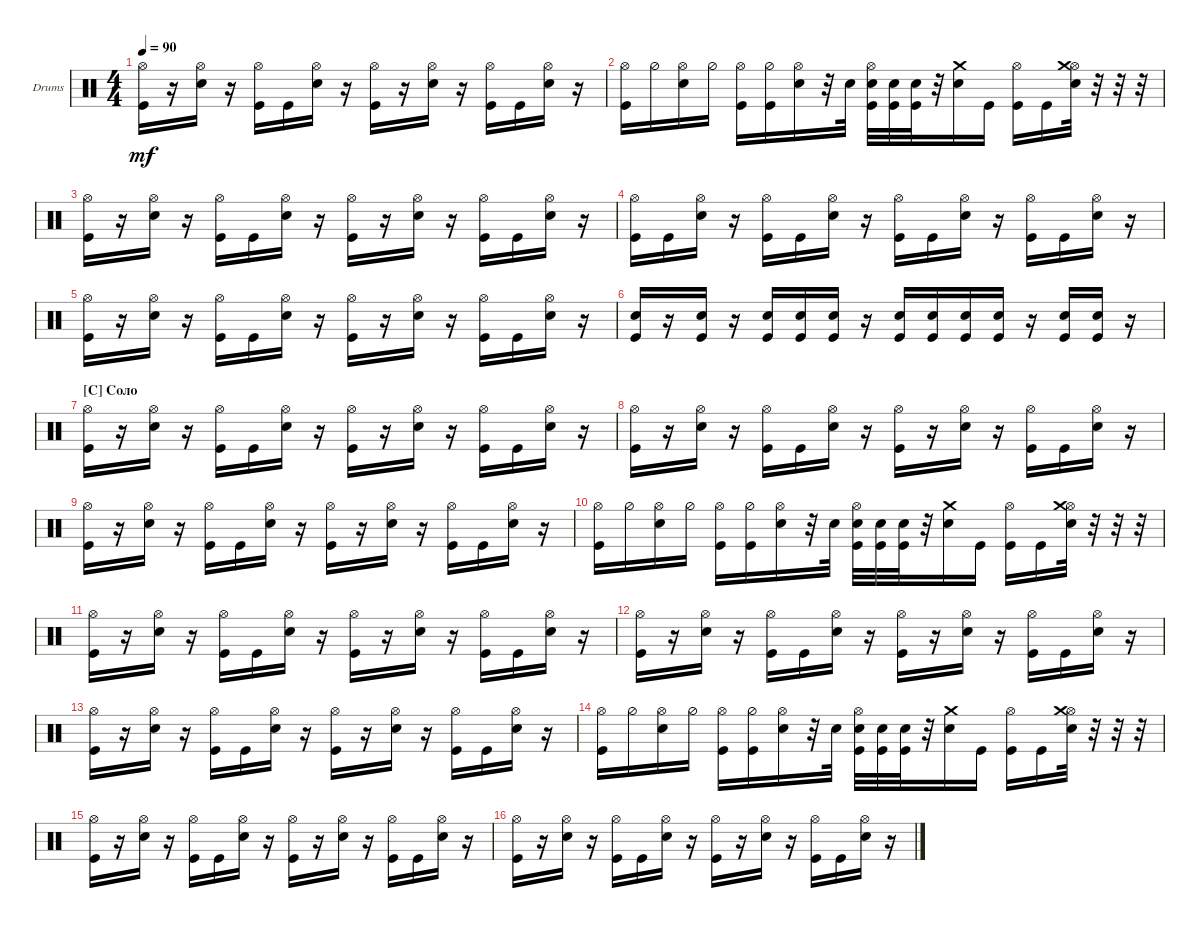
\bracketExtendMode groupsimilarinstruments
\firstSystemTrackNameOrientation horizontal
\otherSystemsTrackNameOrientation horizontal
\track ("Drumkit" "Drums") {instrument percussion}
\staff {score}
\articulation defaults
\ts (4 4)
\tempo 90
\clef neutral
\ks c
("Hi-Hat (open)" "Kick (hit)").16{dy mf} r.16 ("Hi-Hat (open)" "Snare (hit) 2").16 r.16 ("Hi-Hat (open)" "Kick (hit)").16 "Kick (hit)".16 ("Hi-Hat (open)" "Snare (hit) 2").16 r.16 ("Hi-Hat (open)" "Kick (hit)").16 r.16 ("Hi-Hat (open)" "Snare (hit) 2").16 r.16 ("Hi-Hat (open)" "Kick (hit)").16 "Kick (hit)".16 ("Hi-Hat (open)" "Snare (hit) 2").16 r.16 |
("Hi-Hat (open)" "Kick (hit)").16 "Hi-Hat (half)".16 ("Hi-Hat (open)" "Snare (hit) 2").16 "Hi-Hat (half)".16 ("Hi-Hat (open)" "Kick (hit)").16 ("Kick (hit)" "Hi-Hat (half)").16 ("Hi-Hat (open)" "Snare (hit) 2").16 r.32 "Snare (hit) 2".32 ("Hi-Hat (open)" "Snare (hit) 2" "Kick (hit)").32 ("Kick (hit)" "Snare (hit) 2").32 ("Kick (hit)" "Snare (hit) 2").32 r.32 ("Crash medium (hit)" "Snare (hit) 2").16 "Kick (hit)".16 ("Hi-Hat (open)" "Kick (hit)").16 "Kick (hit)".16 ("Hi-Hat (open)" "Crash medium (hit)" "Snare (hit) 2").32 r.32 r.32 r.32 |
("Hi-Hat (open)" "Kick (hit)").16 r.16 ("Hi-Hat (open)" "Snare (hit) 2").16 r.16 ("Hi-Hat (open)" "Kick (hit)").16 "Kick (hit)".16 ("Hi-Hat (open)" "Snare (hit) 2").16 r.16 ("Hi-Hat (open)" "Kick (hit)").16 r.16 ("Hi-Hat (open)" "Snare (hit) 2").16 r.16 ("Hi-Hat (open)" "Kick (hit)").16 "Kick (hit)".16 ("Hi-Hat (open)" "Snare (hit) 2").16 r.16 |
("Hi-Hat (open)" "Kick (hit)").16 "Kick (hit)".16 ("Hi-Hat (open)" "Snare (hit) 2").16 r.16 ("Hi-Hat (open)" "Kick (hit)").16 "Kick (hit)".16 ("Hi-Hat (open)" "Snare (hit) 2").16 r.16 ("Hi-Hat (open)" "Kick (hit)").16 "Kick (hit)".16 ("Hi-Hat (open)" "Snare (hit) 2").16 r.16 ("Hi-Hat (open)" "Kick (hit)").16 "Kick (hit)".16 ("Hi-Hat (open)" "Snare (hit) 2").16 r.16 |
("Hi-Hat (open)" "Kick (hit)").16 r.16 ("Hi-Hat (open)" "Snare (hit) 2").16 r.16 ("Hi-Hat (open)" "Kick (hit)").16 "Kick (hit)".16 ("Hi-Hat (open)" "Snare (hit) 2").16 r.16 ("Hi-Hat (open)" "Kick (hit)").16 r.16 ("Hi-Hat (open)" "Snare (hit) 2").16 r.16 ("Hi-Hat (open)" "Kick (hit)").16 "Kick (hit)".16 ("Hi-Hat (open)" "Snare (hit) 2").16 r.16 |
("Kick (hit)" "Snare (hit) 2").16 r.16 ("Kick (hit)" "Snare (hit) 2").16 r.16 ("Kick (hit)" "Snare (hit) 2").16 ("Kick (hit)" "Snare (hit) 2").16 ("Kick (hit)" "Snare (hit) 2").16 r.16 ("Kick (hit)" "Snare (hit) 2").16 ("Kick (hit)" "Snare (hit) 2").16 ("Kick (hit)" "Snare (hit) 2").16 ("Kick (hit)" "Snare (hit) 2").16 r.16 ("Kick (hit)" "Snare (hit) 2").16 ("Kick (hit)" "Snare (hit) 2").16 r.16 |
\section ("C" "Соло")
("Hi-Hat (open)" "Kick (hit)").16 r.16 ("Hi-Hat (open)" "Snare (hit) 2").16 r.16 ("Hi-Hat (open)" "Kick (hit)").16 "Kick (hit)".16 ("Hi-Hat (open)" "Snare (hit) 2").16 r.16 ("Hi-Hat (open)" "Kick (hit)").16 r.16 ("Hi-Hat (open)" "Snare (hit) 2").16 r.16 ("Hi-Hat (open)" "Kick (hit)").16 "Kick (hit)".16 ("Hi-Hat (open)" "Snare (hit) 2").16 r.16 |
("Hi-Hat (open)" "Kick (hit)").16 r.16 ("Hi-Hat (open)" "Snare (hit) 2").16 r.16 ("Hi-Hat (open)" "Kick (hit)").16 "Kick (hit)".16 ("Hi-Hat (open)" "Snare (hit) 2").16 r.16 ("Hi-Hat (open)" "Kick (hit)").16 r.16 ("Hi-Hat (open)" "Snare (hit) 2").16 r.16 ("Hi-Hat (open)" "Kick (hit)").16 "Kick (hit)".16 ("Hi-Hat (open)" "Snare (hit) 2").16 r.16 |
("Hi-Hat (open)" "Kick (hit)").16 r.16 ("Hi-Hat (open)" "Snare (hit) 2").16 r.16 ("Hi-Hat (open)" "Kick (hit)").16 "Kick (hit)".16 ("Hi-Hat (open)" "Snare (hit) 2").16 r.16 ("Hi-Hat (open)" "Kick (hit)").16 r.16 ("Hi-Hat (open)" "Snare (hit) 2").16 r.16 ("Hi-Hat (open)" "Kick (hit)").16 "Kick (hit)".16 ("Hi-Hat (open)" "Snare (hit) 2").16 r.16 |
("Hi-Hat (open)" "Kick (hit)").16 "Hi-Hat (half)".16 ("Hi-Hat (open)" "Snare (hit) 2").16 "Hi-Hat (half)".16 ("Hi-Hat (open)" "Kick (hit)").16 ("Kick (hit)" "Hi-Hat (half)").16 ("Hi-Hat (open)" "Snare (hit) 2").16 r.32 "Snare (hit) 2".32 ("Hi-Hat (open)" "Snare (hit) 2" "Kick (hit)").32 ("Kick (hit)" "Snare (hit) 2").32 ("Kick (hit)" "Snare (hit) 2").32 r.32 ("Crash medium (hit)" "Snare (hit) 2").16 "Kick (hit)".16 ("Hi-Hat (open)" "Kick (hit)").16 "Kick (hit)".16 ("Hi-Hat (open)" "Crash medium (hit)" "Snare (hit) 2").32 r.32 r.32 r.32 |
("Hi-Hat (open)" "Kick (hit)").16 r.16 ("Hi-Hat (open)" "Snare (hit) 2").16 r.16 ("Hi-Hat (open)" "Kick (hit)").16 "Kick (hit)".16 ("Hi-Hat (open)" "Snare (hit) 2").16 r.16 ("Hi-Hat (open)" "Kick (hit)").16 r.16 ("Hi-Hat (open)" "Snare (hit) 2").16 r.16 ("Hi-Hat (open)" "Kick (hit)").16 "Kick (hit)".16 ("Hi-Hat (open)" "Snare (hit) 2").16 r.16 |
("Hi-Hat (open)" "Kick (hit)").16 r.16 ("Hi-Hat (open)" "Snare (hit) 2").16 r.16 ("Hi-Hat (open)" "Kick (hit)").16 "Kick (hit)".16 ("Hi-Hat (open)" "Snare (hit) 2").16 r.16 ("Hi-Hat (open)" "Kick (hit)").16 r.16 ("Hi-Hat (open)" "Snare (hit) 2").16 r.16 ("Hi-Hat (open)" "Kick (hit)").16 "Kick (hit)".16 ("Hi-Hat (open)" "Snare (hit) 2").16 r.16 |
("Hi-Hat (open)" "Kick (hit)").16 r.16 ("Hi-Hat (open)" "Snare (hit) 2").16 r.16 ("Hi-Hat (open)" "Kick (hit)").16 "Kick (hit)".16 ("Hi-Hat (open)" "Snare (hit) 2").16 r.16 ("Hi-Hat (open)" "Kick (hit)").16 r.16 ("Hi-Hat (open)" "Snare (hit) 2").16 r.16 ("Hi-Hat (open)" "Kick (hit)").16 "Kick (hit)".16 ("Hi-Hat (open)" "Snare (hit) 2").16 r.16 |
("Hi-Hat (open)" "Kick (hit)").16 "Hi-Hat (half)".16 ("Hi-Hat (open)" "Snare (hit) 2").16 "Hi-Hat (half)".16 ("Hi-Hat (open)" "Kick (hit)").16 ("Kick (hit)" "Hi-Hat (half)").16 ("Hi-Hat (open)" "Snare (hit) 2").16 r.32 "Snare (hit) 2".32 ("Hi-Hat (open)" "Snare (hit) 2" "Kick (hit)").32 ("Kick (hit)" "Snare (hit) 2").32 ("Kick (hit)" "Snare (hit) 2").32 r.32 ("Crash medium (hit)" "Snare (hit) 2").16 "Kick (hit)".16 ("Hi-Hat (open)" "Kick (hit)").16 "Kick (hit)".16 ("Hi-Hat (open)" "Crash medium (hit)" "Snare (hit) 2").32 r.32 r.32 r.32 |
("Hi-Hat (open)" "Kick (hit)").16 r.16 ("Hi-Hat (open)" "Snare (hit) 2").16 r.16 ("Hi-Hat (open)" "Kick (hit)").16 "Kick (hit)".16 ("Hi-Hat (open)" "Snare (hit) 2").16 r.16 ("Hi-Hat (open)" "Kick (hit)").16 r.16 ("Hi-Hat (open)" "Snare (hit) 2").16 r.16 ("Hi-Hat (open)" "Kick (hit)").16 "Kick (hit)".16 ("Hi-Hat (open)" "Snare (hit) 2").16 r.16 |
("Hi-Hat (open)" "Kick (hit)").16 r.16 ("Hi-Hat (open)" "Snare (hit) 2").16 r.16 ("Hi-Hat (open)" "Kick (hit)").16 "Kick (hit)".16 ("Hi-Hat (open)" "Snare (hit) 2").16 r.16 ("Hi-Hat (open)" "Kick (hit)").16 r.16 ("Hi-Hat (open)" "Snare (hit) 2").16 r.16 ("Hi-Hat (open)" "Kick (hit)").16 "Kick (hit)".16 ("Hi-Hat (open)" "Snare (hit) 2").16 r.16
